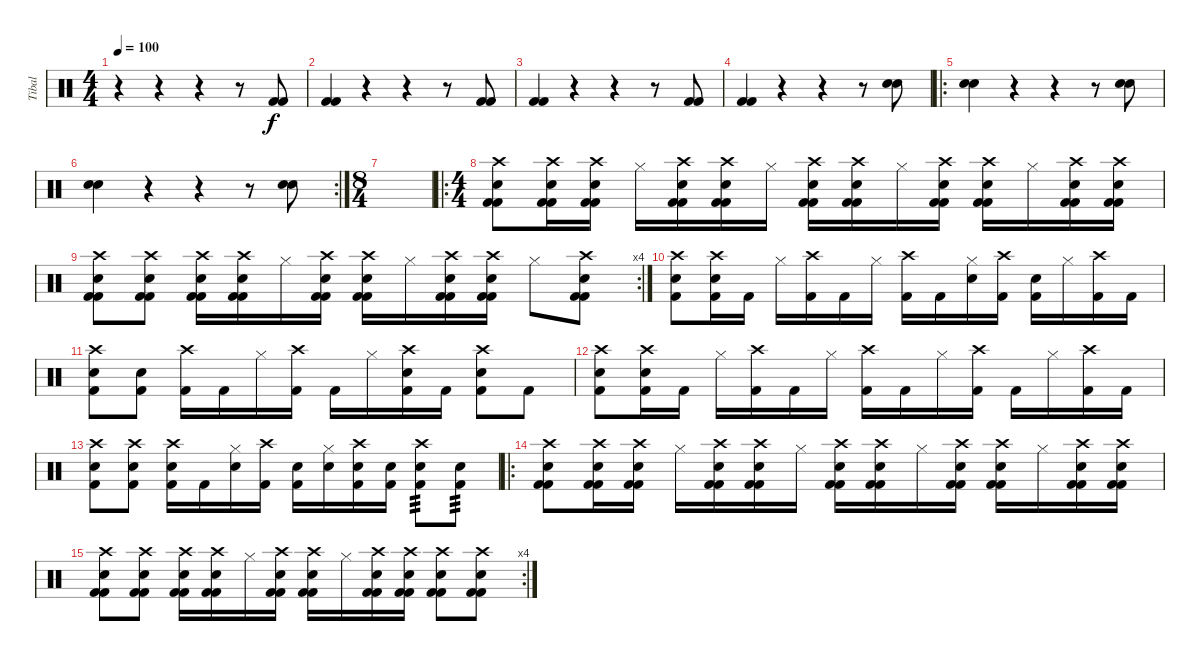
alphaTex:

\track ("Tibal" "Tibal") {instrument percussion}
\staff {score}
\articulation defaults
\ts (4 4)
\tempo 100
\clef neutral
\ks c
r.4{dy f} r.4 r.4 r.8 ("Kick (hit) 2" "Kick (hit) 2").8 |
("Kick (hit) 2" "Kick (hit) 2").4 r.4 r.4 r.8 ("Kick (hit) 2" "Kick (hit) 2").8 |
("Kick (hit) 2" "Kick (hit) 2").4 r.4 r.4 r.8 ("Kick (hit) 2" "Kick (hit) 2").8 |
("Kick (hit) 2" "Kick (hit) 2").4 r.4 r.4 r.8 ("Snare (hit) 2" "Snare (hit) 2").8 |
\ro
("Snare (hit) 2" "Snare (hit) 2").4 r.4 r.4 r.8 ("Snare (hit) 2" "Snare (hit) 2").8 |
\rc 2
("Snare (hit) 2" "Snare (hit) 2").4 r.4 r.4 r.8 ("Snare (hit) 2" "Snare (hit) 2").8 |
\ts (8 4)
|
\ro
\ts (4 4)
("Snare (hit) 2" "Crash high (hit)" "Kick (hit) 2" "Kick (hit) 2").8 ("Snare (hit) 2" "Crash high (hit)" "Kick (hit) 2" "Kick (hit) 2").16 ("Snare (hit) 2" "Crash high (hit)" "Kick (hit) 2" "Kick (hit) 2").16 "Hi-Hat (closed)".16 ("Snare (hit) 2" "Crash high (hit)" "Kick (hit) 2" "Kick (hit) 2").16 ("Snare (hit) 2" "Crash high (hit)" "Kick (hit) 2" "Kick (hit) 2").16 "Hi-Hat (closed)".16 ("Snare (hit) 2" "Crash high (hit)" "Kick (hit) 2" "Kick (hit) 2").16 ("Snare (hit) 2" "Crash high (hit)" "Kick (hit) 2" "Kick (hit) 2").16 "Hi-Hat (closed)".16 ("Snare (hit) 2" "Crash high (hit)" "Kick (hit) 2" "Kick (hit) 2").16 ("Snare (hit) 2" "Crash high (hit)" "Kick (hit) 2" "Kick (hit) 2").16 "Hi-Hat (closed)".16 ("Snare (hit) 2" "Crash high (hit)" "Kick (hit) 2" "Kick (hit) 2").16 ("Snare (hit) 2" "Crash high (hit)" "Kick (hit) 2" "Kick (hit) 2").16 |
\rc 4
("Snare (hit) 2" "Crash high (hit)" "Kick (hit) 2" "Kick (hit) 2").8 ("Snare (hit) 2" "Crash high (hit)" "Kick (hit) 2" "Kick (hit) 2").8 ("Snare (hit) 2" "Crash high (hit)" "Kick (hit) 2" "Kick (hit) 2").16 ("Snare (hit) 2" "Crash high (hit)" "Kick (hit) 2" "Kick (hit) 2").16 "Hi-Hat (closed)".16 ("Snare (hit) 2" "Crash high (hit)" "Kick (hit) 2" "Kick (hit) 2").16 ("Snare (hit) 2" "Crash high (hit)" "Kick (hit) 2" "Kick (hit) 2").16 "Hi-Hat (closed)".16 ("Snare (hit) 2" "Crash high (hit)" "Kick (hit) 2" "Kick (hit) 2").16 ("Snare (hit) 2" "Crash high (hit)" "Kick (hit) 2" "Kick (hit) 2").16 "Hi-Hat (closed)".8 ("Snare (hit) 2" "Crash high (hit)" "Kick (hit) 2" "Kick (hit) 2").8 |
("Crash high (hit)" "Snare (hit) 2" "Kick (hit) 2").8 ("Crash high (hit)" "Snare (hit) 2" "Kick (hit) 2").16 "Kick (hit) 2".16 "Hi-Hat (closed)".16 ("Crash high (hit)" "Kick (hit) 2").16 "Kick (hit) 2".16 "Hi-Hat (closed)".16 ("Crash high (hit)" "Kick (hit) 2").16 "Kick (hit) 2".16 ("Hi-Hat (closed)" "Snare (hit) 2").16 ("Crash high (hit)" "Kick (hit) 2").16 ("Snare (hit) 2" "Kick (hit) 2").16 "Hi-Hat (closed)".16 ("Crash high (hit)" "Kick (hit) 2").16 "Kick (hit) 2".16 |
("Crash high (hit)" "Snare (hit) 2" "Kick (hit) 2").8 ("Snare (hit) 2" "Kick (hit) 2").8 ("Crash high (hit)" "Kick (hit) 2").16 "Kick (hit) 2".16 "Hi-Hat (closed)".16 ("Crash high (hit)" "Kick (hit) 2").16 "Kick (hit) 2".16 "Hi-Hat (closed)".16 ("Crash high (hit)" "Snare (hit) 2" "Kick (hit) 2").16 "Kick (hit) 2".16 ("Crash high (hit)" "Snare (hit) 2" "Kick (hit) 2").8 "Kick (hit) 2".8 |
("Crash high (hit)" "Snare (hit) 2" "Kick (hit) 2").8 ("Crash high (hit)" "Snare (hit) 2" "Kick (hit) 2").16 "Kick (hit) 2".16 "Hi-Hat (closed)".16 ("Crash high (hit)" "Kick (hit) 2").16 "Kick (hit) 2".16 "Hi-Hat (closed)".16 ("Crash high (hit)" "Kick (hit) 2").16 "Kick (hit) 2".16 "Hi-Hat (closed)".16 ("Crash high (hit)" "Kick (hit) 2").16 "Kick (hit) 2".16 "Hi-Hat (closed)".16 ("Crash high (hit)" "Kick (hit) 2").16 "Kick (hit) 2".16 |
("Crash high (hit)" "Snare (hit) 2" "Kick (hit) 2").8 ("Crash high (hit)" "Snare (hit) 2" "Kick (hit) 2").8 ("Crash high (hit)" "Snare (hit) 2" "Kick (hit) 2").16 "Kick (hit) 2".16 ("Snare (hit) 2" "Hi-Hat (closed)").16 ("Crash high (hit)" "Kick (hit) 2").16 ("Snare (hit) 2" "Kick (hit) 2").16 ("Snare (hit) 2" "Hi-Hat (closed)").16 ("Crash high (hit)" "Snare (hit) 2" "Kick (hit) 2").16 ("Snare (hit) 2" "Kick (hit) 2").16 ("Crash high (hit)" "Snare (hit) 2" "Kick (hit) 2").8{tp 3} ("Snare (hit) 2" "Kick (hit) 2").8{tp 3} |
\ro
("Snare (hit) 2" "Crash high (hit)" "Kick (hit) 2" "Kick (hit) 2").8 ("Snare (hit) 2" "Crash high (hit)" "Kick (hit) 2" "Kick (hit) 2").16 ("Snare (hit) 2" "Crash high (hit)" "Kick (hit) 2" "Kick (hit) 2").16 "Hi-Hat (closed)".16 ("Snare (hit) 2" "Crash high (hit)" "Kick (hit) 2" "Kick (hit) 2").16 ("Snare (hit) 2" "Crash high (hit)" "Kick (hit) 2" "Kick (hit) 2").16 "Hi-Hat (closed)".16 ("Snare (hit) 2" "Crash high (hit)" "Kick (hit) 2" "Kick (hit) 2").16 ("Snare (hit) 2" "Crash high (hit)" "Kick (hit) 2" "Kick (hit) 2").16 "Hi-Hat (closed)".16 ("Snare (hit) 2" "Crash high (hit)" "Kick (hit) 2" "Kick (hit) 2").16 ("Snare (hit) 2" "Crash high (hit)" "Kick (hit) 2" "Kick (hit) 2").16 "Hi-Hat (closed)".16 ("Snare (hit) 2" "Crash high (hit)" "Kick (hit) 2" "Kick (hit) 2").16 ("Snare (hit) 2" "Crash high (hit)" "Kick (hit) 2" "Kick (hit) 2").16 |
\rc 4
("Snare (hit) 2" "Crash high (hit)" "Kick (hit) 2" "Kick (hit) 2").8 ("Snare (hit) 2" "Crash high (hit)" "Kick (hit) 2" "Kick (hit) 2").8 ("Snare (hit) 2" "Crash high (hit)" "Kick (hit) 2" "Kick (hit) 2").16 ("Snare (hit) 2" "Crash high (hit)" "Kick (hit) 2" "Kick (hit) 2").16 "Hi-Hat (closed)".16 ("Snare (hit) 2" "Crash high (hit)" "Kick (hit) 2" "Kick (hit) 2").16 ("Snare (hit) 2" "Crash high (hit)" "Kick (hit) 2" "Kick (hit) 2").16 "Hi-Hat (closed)".16 ("Snare (hit) 2" "Crash high (hit)" "Kick (hit) 2" "Kick (hit) 2").16 ("Snare (hit) 2" "Crash high (hit)" "Kick (hit) 2" "Kick (hit) 2").16 ("Snare (hit) 2" "Crash high (hit)" "Kick (hit) 2" "Kick (hit) 2").8 ("Snare (hit) 2" "Crash high (hit)" "Kick (hit) 2" "Kick (hit) 2").8
